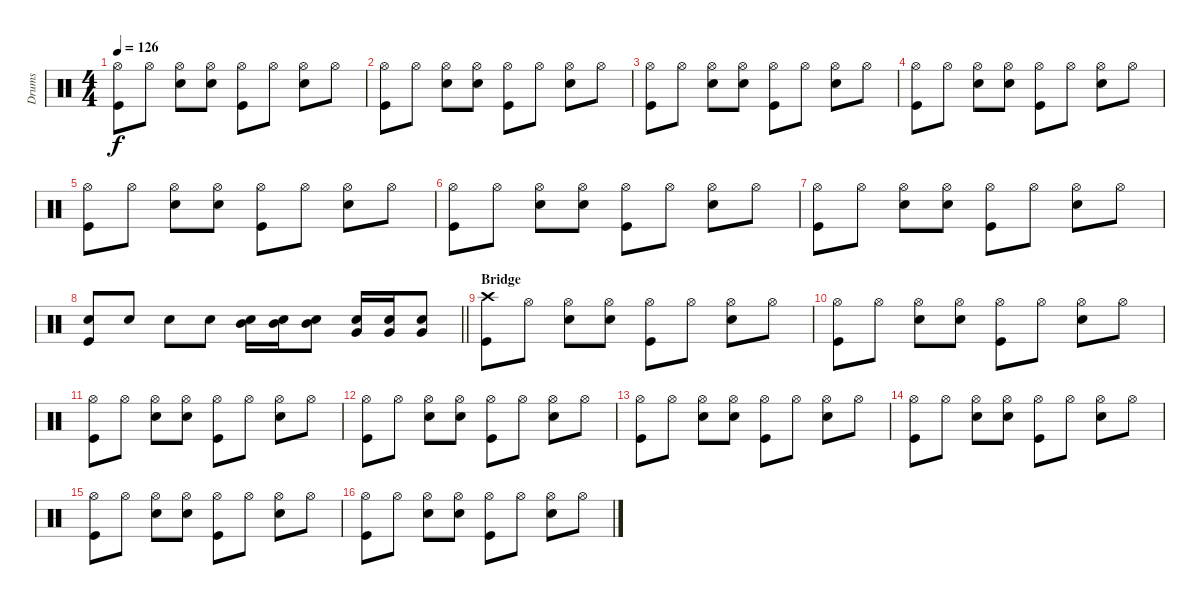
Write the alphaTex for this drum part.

\track ("Drums" "Drums") {instrument percussion}
\staff {score}
\articulation defaults
\ts (4 4)
\tempo 126
\clef neutral
\ks c
("Hi-Hat (open)" "Kick (hit)").8{dy f} "Hi-Hat (open)".8 ("Hi-Hat (open)" "Snare (hit) 2").8 ("Hi-Hat (open)" "Snare (hit) 2").8 ("Hi-Hat (open)" "Kick (hit)").8 "Hi-Hat (open)".8 ("Hi-Hat (open)" "Snare (hit) 2").8 "Hi-Hat (open)".8 |
("Kick (hit)" "Hi-Hat (open)").8 "Hi-Hat (open)".8 ("Hi-Hat (open)" "Snare (hit) 2").8 ("Hi-Hat (open)" "Snare (hit) 2").8 ("Hi-Hat (open)" "Kick (hit)").8 "Hi-Hat (open)".8 ("Hi-Hat (open)" "Snare (hit) 2").8 "Hi-Hat (open)".8 |
("Kick (hit)" "Hi-Hat (open)").8 "Hi-Hat (open)".8 ("Hi-Hat (open)" "Snare (hit) 2").8 ("Hi-Hat (open)" "Snare (hit) 2").8 ("Hi-Hat (open)" "Kick (hit)").8 "Hi-Hat (open)".8 ("Hi-Hat (open)" "Snare (hit) 2").8 "Hi-Hat (open)".8 |
("Kick (hit)" "Hi-Hat (open)").8 "Hi-Hat (open)".8 ("Hi-Hat (open)" "Snare (hit) 2").8 ("Hi-Hat (open)" "Snare (hit) 2").8 ("Hi-Hat (open)" "Kick (hit)").8 "Hi-Hat (open)".8 ("Hi-Hat (open)" "Snare (hit) 2").8 "Hi-Hat (open)".8 |
("Kick (hit)" "Hi-Hat (open)").8 "Hi-Hat (open)".8 ("Hi-Hat (open)" "Snare (hit) 2").8 ("Hi-Hat (open)" "Snare (hit) 2").8 ("Hi-Hat (open)" "Kick (hit)").8 "Hi-Hat (open)".8 ("Hi-Hat (open)" "Snare (hit) 2").8 "Hi-Hat (open)".8 |
("Kick (hit)" "Hi-Hat (open)").8 "Hi-Hat (open)".8 ("Hi-Hat (open)" "Snare (hit) 2").8 ("Hi-Hat (open)" "Snare (hit) 2").8 ("Hi-Hat (open)" "Kick (hit)").8 "Hi-Hat (open)".8 ("Hi-Hat (open)" "Snare (hit) 2").8 "Hi-Hat (open)".8 |
("Kick (hit)" "Hi-Hat (open)").8 "Hi-Hat (open)".8 ("Hi-Hat (open)" "Snare (hit) 2").8 ("Hi-Hat (open)" "Snare (hit) 2").8 ("Hi-Hat (open)" "Kick (hit)").8 "Hi-Hat (open)".8 ("Hi-Hat (open)" "Snare (hit) 2").8 "Hi-Hat (open)".8 |
\barLineRight lightlight
("Snare (hit) 2" "Kick (hit)").8 "Snare (hit) 2".8 "Snare (hit) 2".8 "Snare (hit) 2".8 ("Snare (hit) 2" "Mid Tom (hit)").16 ("Snare (hit) 2" "Mid Tom (hit)").16 ("Snare (hit) 2" "Mid Tom (hit)").8 ("Very Low Tom (hit)" "Snare (hit) 2").16 ("Very Low Tom (hit)" "Snare (hit) 2").16 ("Snare (hit) 2" "Very Low Tom (hit)").8 |
\section ("" "Bridge")
("Crash high (hit)" "Kick (hit)").8 "Hi-Hat (open)".8 ("Hi-Hat (open)" "Snare (hit) 2").8 ("Hi-Hat (open)" "Snare (hit) 2").8 ("Hi-Hat (open)" "Kick (hit)").8 "Hi-Hat (open)".8 ("Hi-Hat (open)" "Snare (hit) 2").8 "Hi-Hat (open)".8 |
("Kick (hit)" "Hi-Hat (open)").8 "Hi-Hat (open)".8 ("Hi-Hat (open)" "Snare (hit) 2").8 ("Hi-Hat (open)" "Snare (hit) 2").8 ("Hi-Hat (open)" "Kick (hit)").8 "Hi-Hat (open)".8 ("Hi-Hat (open)" "Snare (hit) 2").8 "Hi-Hat (open)".8 |
("Hi-Hat (open)" "Kick (hit)").8 "Hi-Hat (open)".8 ("Hi-Hat (open)" "Snare (hit) 2").8 ("Hi-Hat (open)" "Snare (hit) 2").8 ("Hi-Hat (open)" "Kick (hit)").8 "Hi-Hat (open)".8 ("Hi-Hat (open)" "Snare (hit) 2").8 "Hi-Hat (open)".8 |
("Hi-Hat (open)" "Kick (hit)").8 "Hi-Hat (open)".8 ("Hi-Hat (open)" "Snare (hit) 2").8 ("Hi-Hat (open)" "Snare (hit) 2").8 ("Hi-Hat (open)" "Kick (hit)").8 "Hi-Hat (open)".8 ("Hi-Hat (open)" "Snare (hit) 2").8 "Hi-Hat (open)".8 |
("Hi-Hat (open)" "Kick (hit)").8 "Hi-Hat (open)".8 ("Hi-Hat (open)" "Snare (hit) 2").8 ("Hi-Hat (open)" "Snare (hit) 2").8 ("Hi-Hat (open)" "Kick (hit)").8 "Hi-Hat (open)".8 ("Hi-Hat (open)" "Snare (hit) 2").8 "Hi-Hat (open)".8 |
("Hi-Hat (open)" "Kick (hit)").8 "Hi-Hat (open)".8 ("Hi-Hat (open)" "Snare (hit) 2").8 ("Hi-Hat (open)" "Snare (hit) 2").8 ("Hi-Hat (open)" "Kick (hit)").8 "Hi-Hat (open)".8 ("Hi-Hat (open)" "Snare (hit) 2").8 "Hi-Hat (open)".8 |
("Hi-Hat (open)" "Kick (hit)").8 "Hi-Hat (open)".8 ("Hi-Hat (open)" "Snare (hit) 2").8 ("Hi-Hat (open)" "Snare (hit) 2").8 ("Hi-Hat (open)" "Kick (hit)").8 "Hi-Hat (open)".8 ("Hi-Hat (open)" "Snare (hit) 2").8 "Hi-Hat (open)".8 |
("Hi-Hat (open)" "Kick (hit)").8 "Hi-Hat (open)".8 ("Hi-Hat (open)" "Snare (hit) 2").8 ("Hi-Hat (open)" "Snare (hit) 2").8 ("Hi-Hat (open)" "Kick (hit)").8 "Hi-Hat (open)".8 ("Hi-Hat (open)" "Snare (hit) 2").8 "Hi-Hat (open)".8
